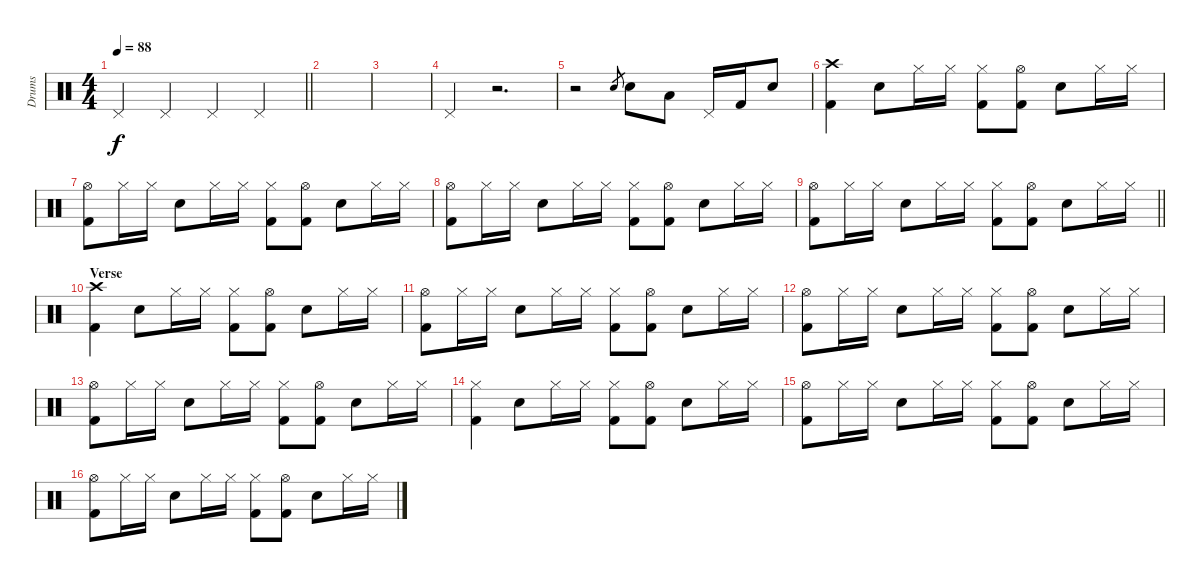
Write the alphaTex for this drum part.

\track ("Drums" "Drums") {instrument percussion}
\staff {score}
\articulation defaults
\ts (4 4)
\tempo 88
\clef neutral
\barLineRight lightlight
\ks c "Pedal Hi-Hat (hit)".4{dy f} "Pedal Hi-Hat (hit)".4 "Pedal Hi-Hat (hit)".4 "Pedal Hi-Hat (hit)".4
|
|
|
"Pedal Hi-Hat (hit)".4 r.2{d} |
r.2 "Electric Snare (hit)".8{gr} "Electric Snare (hit)".8 "Low Tom (hit)".8 "Pedal Hi-Hat (hit)".16 "Kick (hit) 2".16 "Electric Snare (hit)".8 |
("Crash high (hit)" "Kick (hit) 2").4 "Electric Snare (hit)".8 "Hi-Hat (closed)".16 "Hi-Hat (closed)".16 ("Hi-Hat (closed)" "Kick (hit) 2").8 ("Hi-Hat (open)" "Kick (hit) 2").8 "Electric Snare (hit)".8 "Hi-Hat (closed)".16 "Hi-Hat (closed)".16 |
("Hi-Hat (open)" "Kick (hit) 2").8 "Hi-Hat (closed)".16 "Hi-Hat (closed)".16 "Electric Snare (hit)".8 "Hi-Hat (closed)".16 "Hi-Hat (closed)".16 ("Hi-Hat (closed)" "Kick (hit) 2").8 ("Hi-Hat (open)" "Kick (hit) 2").8 "Electric Snare (hit)".8 "Hi-Hat (closed)".16 "Hi-Hat (closed)".16 |
("Hi-Hat (open)" "Kick (hit) 2").8 "Hi-Hat (closed)".16 "Hi-Hat (closed)".16 "Electric Snare (hit)".8 "Hi-Hat (closed)".16 "Hi-Hat (closed)".16 ("Hi-Hat (closed)" "Kick (hit) 2").8 ("Hi-Hat (open)" "Kick (hit) 2").8 "Electric Snare (hit)".8 "Hi-Hat (closed)".16 "Hi-Hat (closed)".16 |
\barLineRight lightlight
("Hi-Hat (open)" "Kick (hit) 2").8 "Hi-Hat (closed)".16 "Hi-Hat (closed)".16 "Electric Snare (hit)".8 "Hi-Hat (closed)".16 "Hi-Hat (closed)".16 ("Hi-Hat (closed)" "Kick (hit) 2").8 ("Hi-Hat (open)" "Kick (hit) 2").8 "Electric Snare (hit)".8 "Hi-Hat (closed)".16 "Hi-Hat (closed)".16 |
\section ("" "Verse")
("Crash high (hit)" "Kick (hit) 2").4 "Electric Snare (hit)".8 "Hi-Hat (closed)".16 "Hi-Hat (closed)".16 ("Hi-Hat (closed)" "Kick (hit) 2").8 ("Hi-Hat (open)" "Kick (hit) 2").8 "Electric Snare (hit)".8 "Hi-Hat (closed)".16 "Hi-Hat (closed)".16 |
("Hi-Hat (open)" "Kick (hit) 2").8 "Hi-Hat (closed)".16 "Hi-Hat (closed)".16 "Electric Snare (hit)".8 "Hi-Hat (closed)".16 "Hi-Hat (closed)".16 ("Hi-Hat (closed)" "Kick (hit) 2").8 ("Hi-Hat (open)" "Kick (hit) 2").8 "Electric Snare (hit)".8 "Hi-Hat (closed)".16 "Hi-Hat (closed)".16 |
("Hi-Hat (open)" "Kick (hit) 2").8 "Hi-Hat (closed)".16 "Hi-Hat (closed)".16 "Electric Snare (hit)".8 "Hi-Hat (closed)".16 "Hi-Hat (closed)".16 ("Hi-Hat (closed)" "Kick (hit) 2").8 ("Hi-Hat (open)" "Kick (hit) 2").8 "Electric Snare (hit)".8 "Hi-Hat (closed)".16 "Hi-Hat (closed)".16 |
("Hi-Hat (open)" "Kick (hit) 2").8 "Hi-Hat (closed)".16 "Hi-Hat (closed)".16 "Electric Snare (hit)".8 "Hi-Hat (closed)".16 "Hi-Hat (closed)".16 ("Hi-Hat (closed)" "Kick (hit) 2").8 ("Hi-Hat (open)" "Kick (hit) 2").8 "Electric Snare (hit)".8 "Hi-Hat (closed)".16 "Hi-Hat (closed)".16 |
("Hi-Hat (closed)" "Kick (hit) 2").4 "Electric Snare (hit)".8 "Hi-Hat (closed)".16 "Hi-Hat (closed)".16 ("Hi-Hat (closed)" "Kick (hit) 2").8 ("Hi-Hat (open)" "Kick (hit) 2").8 "Electric Snare (hit)".8 "Hi-Hat (closed)".16 "Hi-Hat (closed)".16 |
("Hi-Hat (open)" "Kick (hit) 2").8 "Hi-Hat (closed)".16 "Hi-Hat (closed)".16 "Electric Snare (hit)".8 "Hi-Hat (closed)".16 "Hi-Hat (closed)".16 ("Hi-Hat (closed)" "Kick (hit) 2").8 ("Hi-Hat (open)" "Kick (hit) 2").8 "Electric Snare (hit)".8 "Hi-Hat (closed)".16 "Hi-Hat (closed)".16 |
("Hi-Hat (open)" "Kick (hit) 2").8 "Hi-Hat (closed)".16 "Hi-Hat (closed)".16 "Electric Snare (hit)".8 "Hi-Hat (closed)".16 "Hi-Hat (closed)".16 ("Hi-Hat (closed)" "Kick (hit) 2").8 ("Hi-Hat (open)" "Kick (hit) 2").8 "Electric Snare (hit)".8 "Hi-Hat (closed)".16 "Hi-Hat (closed)".16
